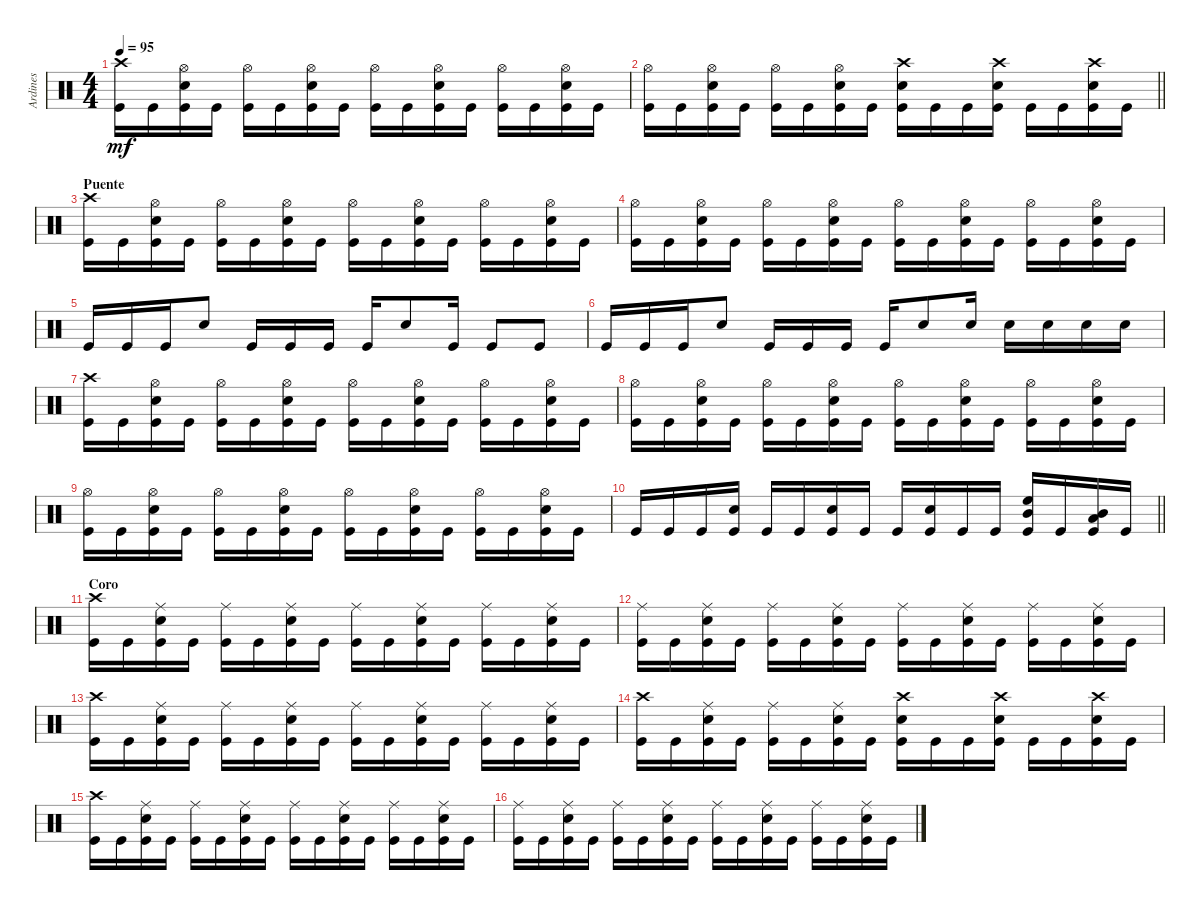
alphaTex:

\track ("Ardines" "Ardines") {instrument percussion}
\staff {score}
\articulation defaults
\ts (4 4)
\tempo 95
\clef neutral
\ks c
("Crash high (hit)" "Kick (hit)").16{dy mf} "Kick (hit)".16 ("Hi-Hat (open)" "Snare (hit) 2" "Kick (hit)").16 "Kick (hit)".16 ("Hi-Hat (open)" "Kick (hit)").16 "Kick (hit)".16 ("Hi-Hat (open)" "Snare (hit) 2" "Kick (hit)").16 "Kick (hit)".16 ("Hi-Hat (open)" "Kick (hit)").16 "Kick (hit)".16 ("Hi-Hat (open)" "Snare (hit) 2" "Kick (hit)").16 "Kick (hit)".16 ("Hi-Hat (open)" "Kick (hit)").16 "Kick (hit)".16 ("Hi-Hat (open)" "Snare (hit) 2" "Kick (hit)").16 "Kick (hit)".16 |
\barLineRight lightlight
("Hi-Hat (open)" "Kick (hit)").16 "Kick (hit)".16 ("Hi-Hat (open)" "Snare (hit) 2" "Kick (hit)").16 "Kick (hit)".16 ("Hi-Hat (open)" "Kick (hit)").16 "Kick (hit)".16 ("Hi-Hat (open)" "Snare (hit) 2" "Kick (hit)").16 "Kick (hit)".16 ("Crash high (hit)" "Snare (hit) 2" "Kick (hit)").16 "Kick (hit)".16 "Kick (hit)".16 ("Crash high (hit)" "Snare (hit) 2" "Kick (hit)").16 "Kick (hit)".16 "Kick (hit)".16 ("Crash high (hit)" "Snare (hit) 2" "Kick (hit)").16 "Kick (hit)".16 |
\section ("" "Puente")
("Crash high (hit)" "Kick (hit)").16 "Kick (hit)".16 ("Hi-Hat (open)" "Snare (hit) 2" "Kick (hit)").16 "Kick (hit)".16 ("Hi-Hat (open)" "Kick (hit)").16 "Kick (hit)".16 ("Hi-Hat (open)" "Snare (hit) 2" "Kick (hit)").16 "Kick (hit)".16 ("Hi-Hat (open)" "Kick (hit)").16 "Kick (hit)".16 ("Hi-Hat (open)" "Snare (hit) 2" "Kick (hit)").16 "Kick (hit)".16 ("Hi-Hat (open)" "Kick (hit)").16 "Kick (hit)".16 ("Hi-Hat (open)" "Snare (hit) 2" "Kick (hit)").16 "Kick (hit)".16 |
("Hi-Hat (open)" "Kick (hit)").16 "Kick (hit)".16 ("Hi-Hat (open)" "Snare (hit) 2" "Kick (hit)").16 "Kick (hit)".16 ("Hi-Hat (open)" "Kick (hit)").16 "Kick (hit)".16 ("Hi-Hat (open)" "Snare (hit) 2" "Kick (hit)").16 "Kick (hit)".16 ("Hi-Hat (open)" "Kick (hit)").16 "Kick (hit)".16 ("Hi-Hat (open)" "Snare (hit) 2" "Kick (hit)").16 "Kick (hit)".16 ("Hi-Hat (open)" "Kick (hit)").16 "Kick (hit)".16 ("Hi-Hat (open)" "Snare (hit) 2" "Kick (hit)").16 "Kick (hit)".16 |
"Kick (hit)".16 "Kick (hit)".16 "Kick (hit)".16 "Snare (hit) 2".8 "Kick (hit)".16 "Kick (hit)".16 "Kick (hit)".16 "Kick (hit)".16 "Snare (hit) 2".8 "Kick (hit)".16 "Kick (hit)".8 "Kick (hit)".8 |
"Kick (hit)".16 "Kick (hit)".16 "Kick (hit)".16 "Snare (hit) 2".8 "Kick (hit)".16 "Kick (hit)".16 "Kick (hit)".16 "Kick (hit)".16 "Snare (hit) 2".8 "Snare (hit) 2".16 "Snare (hit) 2".16 "Snare (hit) 2".16 "Snare (hit) 2".16 "Snare (hit) 2".16 |
("Crash high (hit)" "Kick (hit)").16 "Kick (hit)".16 ("Hi-Hat (open)" "Snare (hit) 2" "Kick (hit)").16 "Kick (hit)".16 ("Hi-Hat (open)" "Kick (hit)").16 "Kick (hit)".16 ("Hi-Hat (open)" "Snare (hit) 2" "Kick (hit)").16 "Kick (hit)".16 ("Hi-Hat (open)" "Kick (hit)").16 "Kick (hit)".16 ("Hi-Hat (open)" "Snare (hit) 2" "Kick (hit)").16 "Kick (hit)".16 ("Hi-Hat (open)" "Kick (hit)").16 "Kick (hit)".16 ("Hi-Hat (open)" "Snare (hit) 2" "Kick (hit)").16 "Kick (hit)".16 |
("Hi-Hat (open)" "Kick (hit)").16 "Kick (hit)".16 ("Hi-Hat (open)" "Snare (hit) 2" "Kick (hit)").16 "Kick (hit)".16 ("Hi-Hat (open)" "Kick (hit)").16 "Kick (hit)".16 ("Hi-Hat (open)" "Snare (hit) 2" "Kick (hit)").16 "Kick (hit)".16 ("Hi-Hat (open)" "Kick (hit)").16 "Kick (hit)".16 ("Hi-Hat (open)" "Snare (hit) 2" "Kick (hit)").16 "Kick (hit)".16 ("Hi-Hat (open)" "Kick (hit)").16 "Kick (hit)".16 ("Hi-Hat (open)" "Snare (hit) 2" "Kick (hit)").16 "Kick (hit)".16 |
("Hi-Hat (open)" "Kick (hit)").16 "Kick (hit)".16 ("Hi-Hat (open)" "Snare (hit) 2" "Kick (hit)").16 "Kick (hit)".16 ("Hi-Hat (open)" "Kick (hit)").16 "Kick (hit)".16 ("Hi-Hat (open)" "Snare (hit) 2" "Kick (hit)").16 "Kick (hit)".16 ("Hi-Hat (open)" "Kick (hit)").16 "Kick (hit)".16 ("Hi-Hat (open)" "Snare (hit) 2" "Kick (hit)").16 "Kick (hit)".16 ("Hi-Hat (open)" "Kick (hit)").16 "Kick (hit)".16 ("Hi-Hat (open)" "Snare (hit) 2" "Kick (hit)").16 "Kick (hit)".16 |
\barLineRight lightlight "Kick (hit)".16 "Kick (hit)".16 "Kick (hit)".16
("Snare (hit) 2" "Kick (hit)").16 "Kick (hit)".16 "Kick (hit)".16 ("Snare (hit) 2" "Kick (hit)").16 "Kick (hit)".16 "Kick (hit)".16 ("Snare (hit) 2" "Kick (hit)").16 "Kick (hit)".16 "Kick (hit)".16 ("High Floor Tom (hit)" "Mid Tom (hit)" "Kick (hit)").16 "Kick (hit)".16 ("Mid Tom (hit)" "Low Tom (hit)" "Kick (hit)").16 "Kick (hit)".16 |
\section ("" "Coro")
("Crash high (hit)" "Kick (hit)").16 "Kick (hit)".16 ("Ride (middle)" "Snare (hit) 2" "Kick (hit)").16 "Kick (hit)".16 ("Ride (middle)" "Kick (hit)").16 "Kick (hit)".16 ("Ride (middle)" "Snare (hit) 2" "Kick (hit)").16 "Kick (hit)".16 ("Ride (middle)" "Kick (hit)").16 "Kick (hit)".16 ("Ride (middle)" "Snare (hit) 2" "Kick (hit)").16 "Kick (hit)".16 ("Ride (middle)" "Kick (hit)").16 "Kick (hit)".16 ("Ride (middle)" "Snare (hit) 2" "Kick (hit)").16 "Kick (hit)".16 |
("Ride (middle)" "Kick (hit)").16 "Kick (hit)".16 ("Ride (middle)" "Snare (hit) 2" "Kick (hit)").16 "Kick (hit)".16 ("Ride (middle)" "Kick (hit)").16 "Kick (hit)".16 ("Ride (middle)" "Snare (hit) 2" "Kick (hit)").16 "Kick (hit)".16 ("Ride (middle)" "Kick (hit)").16 "Kick (hit)".16 ("Ride (middle)" "Snare (hit) 2" "Kick (hit)").16 "Kick (hit)".16 ("Ride (middle)" "Kick (hit)").16 "Kick (hit)".16 ("Ride (middle)" "Snare (hit) 2" "Kick (hit)").16 "Kick (hit)".16 |
("Crash high (hit)" "Kick (hit)").16 "Kick (hit)".16 ("Ride (middle)" "Snare (hit) 2" "Kick (hit)").16 "Kick (hit)".16 ("Ride (middle)" "Kick (hit)").16 "Kick (hit)".16 ("Ride (middle)" "Snare (hit) 2" "Kick (hit)").16 "Kick (hit)".16 ("Ride (middle)" "Kick (hit)").16 "Kick (hit)".16 ("Ride (middle)" "Snare (hit) 2" "Kick (hit)").16 "Kick (hit)".16 ("Ride (middle)" "Kick (hit)").16 "Kick (hit)".16 ("Ride (middle)" "Snare (hit) 2" "Kick (hit)").16 "Kick (hit)".16 |
("Crash high (hit)" "Kick (hit)").16 "Kick (hit)".16 ("Ride (middle)" "Snare (hit) 2" "Kick (hit)").16 "Kick (hit)".16 ("Ride (middle)" "Kick (hit)").16 "Kick (hit)".16 ("Ride (middle)" "Snare (hit) 2" "Kick (hit)").16 "Kick (hit)".16 ("Crash high (hit)" "Snare (hit) 2" "Kick (hit)").16 "Kick (hit)".16 "Kick (hit)".16 ("Crash high (hit)" "Snare (hit) 2" "Kick (hit)").16 "Kick (hit)".16 "Kick (hit)".16 ("Crash high (hit)" "Snare (hit) 2" "Kick (hit)").16 "Kick (hit)".16 |
("Crash high (hit)" "Kick (hit)").16 "Kick (hit)".16 ("Ride (middle)" "Snare (hit) 2" "Kick (hit)").16 "Kick (hit)".16 ("Ride (middle)" "Kick (hit)").16 "Kick (hit)".16 ("Ride (middle)" "Snare (hit) 2" "Kick (hit)").16 "Kick (hit)".16 ("Ride (middle)" "Kick (hit)").16 "Kick (hit)".16 ("Ride (middle)" "Snare (hit) 2" "Kick (hit)").16 "Kick (hit)".16 ("Ride (middle)" "Kick (hit)").16 "Kick (hit)".16 ("Ride (middle)" "Snare (hit) 2" "Kick (hit)").16 "Kick (hit)".16 |
("Ride (middle)" "Kick (hit)").16 "Kick (hit)".16 ("Ride (middle)" "Snare (hit) 2" "Kick (hit)").16 "Kick (hit)".16 ("Ride (middle)" "Kick (hit)").16 "Kick (hit)".16 ("Ride (middle)" "Snare (hit) 2" "Kick (hit)").16 "Kick (hit)".16 ("Ride (middle)" "Kick (hit)").16 "Kick (hit)".16 ("Ride (middle)" "Snare (hit) 2" "Kick (hit)").16 "Kick (hit)".16 ("Ride (middle)" "Kick (hit)").16 "Kick (hit)".16 ("Ride (middle)" "Snare (hit) 2" "Kick (hit)").16 "Kick (hit)".16
